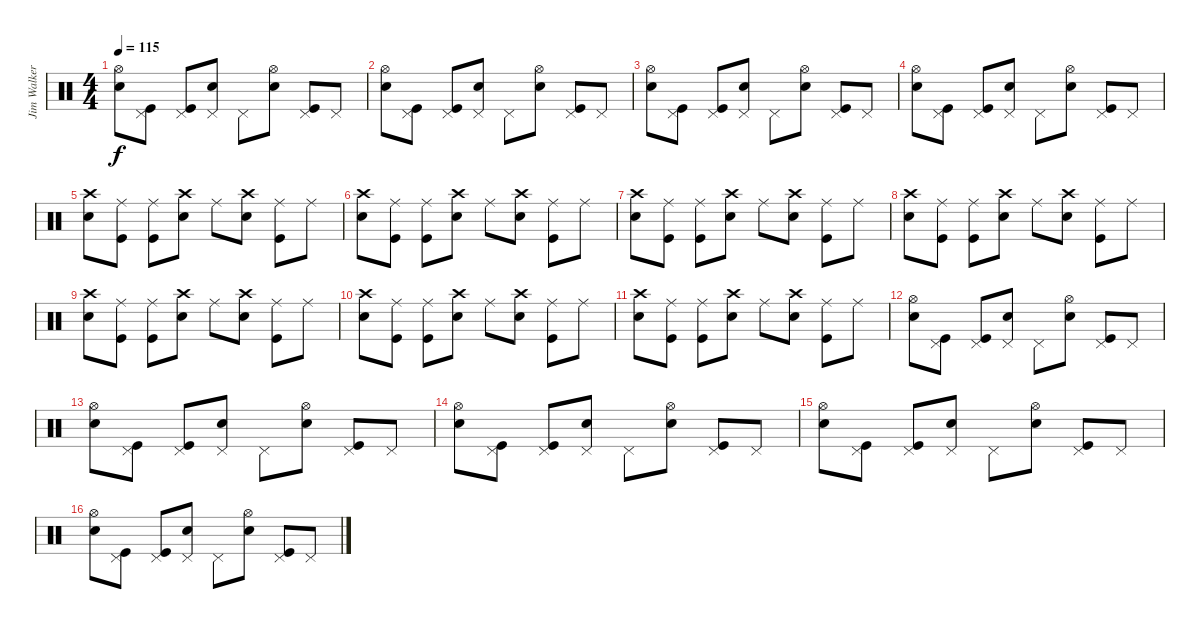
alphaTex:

\track ("Jim Walker-Drums" "Jim Walker") {instrument percussion}
\staff {score}
\articulation defaults
\ts (4 4)
\tempo 115
\clef neutral
\ks c
("Hi-Hat (open)" "Electric Snare (hit)").8{dy f} ("Pedal Hi-Hat (hit)" "Kick (hit)").8 ("Pedal Hi-Hat (hit)" "Kick (hit)").8 ("Pedal Hi-Hat (hit)" "Electric Snare (hit)").8 "Pedal Hi-Hat (hit)".8 ("Hi-Hat (open)" "Electric Snare (hit)").8 ("Pedal Hi-Hat (hit)" "Kick (hit)").8 "Pedal Hi-Hat (hit)".8 |
("Hi-Hat (open)" "Electric Snare (hit)").8 ("Pedal Hi-Hat (hit)" "Kick (hit)").8 ("Pedal Hi-Hat (hit)" "Kick (hit)").8 ("Pedal Hi-Hat (hit)" "Electric Snare (hit)").8 "Pedal Hi-Hat (hit)".8 ("Hi-Hat (open)" "Electric Snare (hit)").8 ("Pedal Hi-Hat (hit)" "Kick (hit)").8 "Pedal Hi-Hat (hit)".8 |
("Hi-Hat (open)" "Electric Snare (hit)").8 ("Pedal Hi-Hat (hit)" "Kick (hit)").8 ("Pedal Hi-Hat (hit)" "Kick (hit)").8 ("Pedal Hi-Hat (hit)" "Electric Snare (hit)").8 "Pedal Hi-Hat (hit)".8 ("Hi-Hat (open)" "Electric Snare (hit)").8 ("Pedal Hi-Hat (hit)" "Kick (hit)").8 "Pedal Hi-Hat (hit)".8 |
("Hi-Hat (open)" "Electric Snare (hit)").8 ("Pedal Hi-Hat (hit)" "Kick (hit)").8 ("Pedal Hi-Hat (hit)" "Kick (hit)").8 ("Pedal Hi-Hat (hit)" "Electric Snare (hit)").8 "Pedal Hi-Hat (hit)".8 ("Hi-Hat (open)" "Electric Snare (hit)").8 ("Pedal Hi-Hat (hit)" "Kick (hit)").8 "Pedal Hi-Hat (hit)".8 |
("Crash high (hit)" "Electric Snare (hit)").8 ("Ride (middle)" "Kick (hit)").8 ("Ride (middle)" "Kick (hit)").8 ("Crash high (hit)" "Electric Snare (hit)").8 "Ride (middle)".8 ("Crash high (hit)" "Electric Snare (hit)").8 ("Ride (middle)" "Kick (hit)").8 "Ride (middle)".8 |
("Crash high (hit)" "Electric Snare (hit)").8 ("Ride (middle)" "Kick (hit)").8 ("Ride (middle)" "Kick (hit)").8 ("Crash high (hit)" "Electric Snare (hit)").8 "Ride (middle)".8 ("Crash high (hit)" "Electric Snare (hit)").8 ("Ride (middle)" "Kick (hit)").8 "Ride (middle)".8 |
("Crash high (hit)" "Electric Snare (hit)").8 ("Ride (middle)" "Kick (hit)").8 ("Ride (middle)" "Kick (hit)").8 ("Crash high (hit)" "Electric Snare (hit)").8 "Ride (middle)".8 ("Crash high (hit)" "Electric Snare (hit)").8 ("Ride (middle)" "Kick (hit)").8 "Ride (middle)".8 |
("Crash high (hit)" "Electric Snare (hit)").8 ("Ride (middle)" "Kick (hit)").8 ("Ride (middle)" "Kick (hit)").8 ("Crash high (hit)" "Electric Snare (hit)").8 "Ride (middle)".8 ("Crash high (hit)" "Electric Snare (hit)").8 ("Ride (middle)" "Kick (hit)").8 "Ride (middle)".8 |
("Crash high (hit)" "Electric Snare (hit)").8 ("Ride (middle)" "Kick (hit)").8 ("Ride (middle)" "Kick (hit)").8 ("Crash high (hit)" "Electric Snare (hit)").8 "Ride (middle)".8 ("Crash high (hit)" "Electric Snare (hit)").8 ("Ride (middle)" "Kick (hit)").8 "Ride (middle)".8 |
("Crash high (hit)" "Electric Snare (hit)").8 ("Ride (middle)" "Kick (hit)").8 ("Ride (middle)" "Kick (hit)").8 ("Crash high (hit)" "Electric Snare (hit)").8 "Ride (middle)".8 ("Crash high (hit)" "Electric Snare (hit)").8 ("Ride (middle)" "Kick (hit)").8 "Ride (middle)".8 |
("Crash high (hit)" "Electric Snare (hit)").8 ("Ride (middle)" "Kick (hit)").8 ("Ride (middle)" "Kick (hit)").8 ("Crash high (hit)" "Electric Snare (hit)").8 "Ride (middle)".8 ("Crash high (hit)" "Electric Snare (hit)").8 ("Ride (middle)" "Kick (hit)").8 "Ride (middle)".8 |
("Hi-Hat (open)" "Electric Snare (hit)").8 ("Pedal Hi-Hat (hit)" "Kick (hit)").8 ("Pedal Hi-Hat (hit)" "Kick (hit)").8 ("Pedal Hi-Hat (hit)" "Electric Snare (hit)").8 "Pedal Hi-Hat (hit)".8 ("Hi-Hat (open)" "Electric Snare (hit)").8 ("Pedal Hi-Hat (hit)" "Kick (hit)").8 "Pedal Hi-Hat (hit)".8 |
("Hi-Hat (open)" "Electric Snare (hit)").8 ("Pedal Hi-Hat (hit)" "Kick (hit)").8 ("Pedal Hi-Hat (hit)" "Kick (hit)").8 ("Pedal Hi-Hat (hit)" "Electric Snare (hit)").8 "Pedal Hi-Hat (hit)".8 ("Hi-Hat (open)" "Electric Snare (hit)").8 ("Pedal Hi-Hat (hit)" "Kick (hit)").8 "Pedal Hi-Hat (hit)".8 |
("Hi-Hat (open)" "Electric Snare (hit)").8 ("Pedal Hi-Hat (hit)" "Kick (hit)").8 ("Pedal Hi-Hat (hit)" "Kick (hit)").8 ("Pedal Hi-Hat (hit)" "Electric Snare (hit)").8 "Pedal Hi-Hat (hit)".8 ("Hi-Hat (open)" "Electric Snare (hit)").8 ("Pedal Hi-Hat (hit)" "Kick (hit)").8 "Pedal Hi-Hat (hit)".8 |
("Hi-Hat (open)" "Electric Snare (hit)").8 ("Pedal Hi-Hat (hit)" "Kick (hit)").8 ("Pedal Hi-Hat (hit)" "Kick (hit)").8 ("Pedal Hi-Hat (hit)" "Electric Snare (hit)").8 "Pedal Hi-Hat (hit)".8 ("Hi-Hat (open)" "Electric Snare (hit)").8 ("Pedal Hi-Hat (hit)" "Kick (hit)").8 "Pedal Hi-Hat (hit)".8 |
("Hi-Hat (open)" "Electric Snare (hit)").8 ("Pedal Hi-Hat (hit)" "Kick (hit)").8 ("Pedal Hi-Hat (hit)" "Kick (hit)").8 ("Pedal Hi-Hat (hit)" "Electric Snare (hit)").8 "Pedal Hi-Hat (hit)".8 ("Hi-Hat (open)" "Electric Snare (hit)").8 ("Pedal Hi-Hat (hit)" "Kick (hit)").8 "Pedal Hi-Hat (hit)".8
